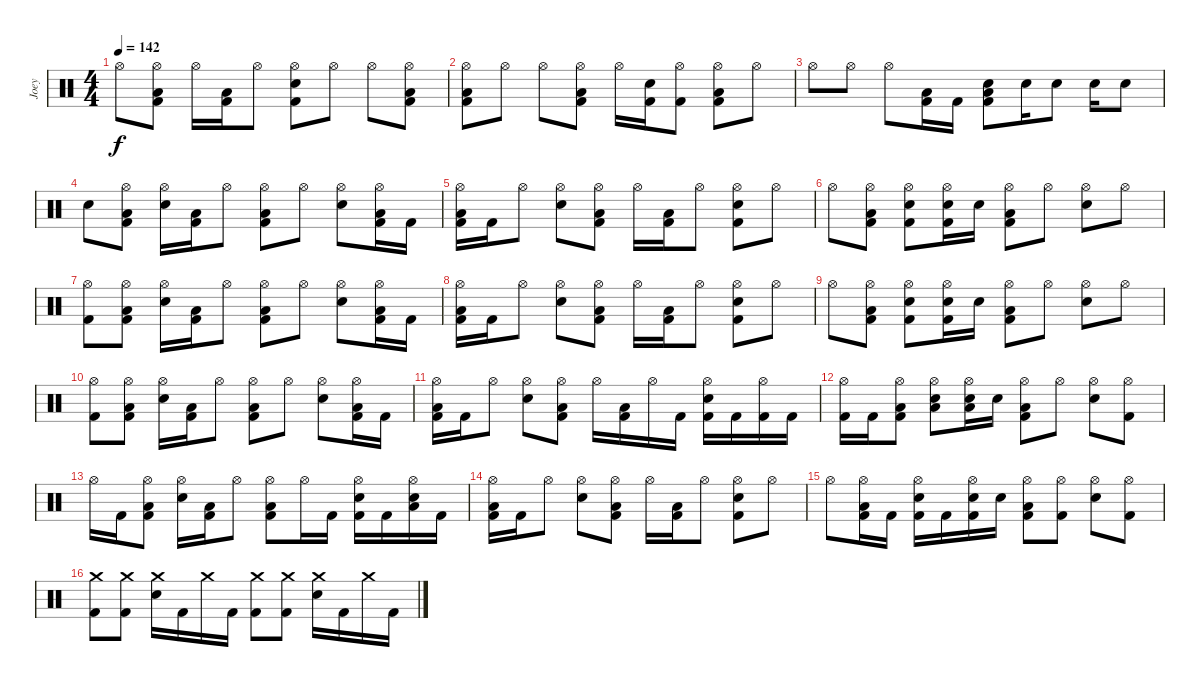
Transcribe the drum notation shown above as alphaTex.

\track ("Joey" "Joey") {instrument percussion}
\staff {score}
\articulation defaults
\ts (4 4)
\tempo 142
\clef neutral
\ks c "Hi-Hat (open)".8{dy f}
("Hi-Hat (open)" "Low Floor Tom (hit)" "Kick (hit) 2").8 "Hi-Hat (open)".16 ("Low Floor Tom (hit)" "Kick (hit) 2").16 "Hi-Hat (open)".8 ("Hi-Hat (open)" "Electric Snare (hit)" "Kick (hit) 2").8 "Hi-Hat (open)".8 "Hi-Hat (open)".8 ("Hi-Hat (open)" "Low Floor Tom (hit)" "Kick (hit) 2").8 |
("Hi-Hat (open)" "Low Floor Tom (hit)" "Kick (hit) 2").8 "Hi-Hat (open)".8 "Hi-Hat (open)".8 ("Hi-Hat (open)" "Low Floor Tom (hit)" "Kick (hit) 2").8 "Hi-Hat (open)".16 ("Electric Snare (hit)" "Kick (hit) 2").16 ("Hi-Hat (open)" "Kick (hit) 2").8 ("Hi-Hat (open)" "Low Floor Tom (hit)" "Kick (hit) 2").8 "Hi-Hat (open)".8 |
"Hi-Hat (open)".8 "Hi-Hat (open)".8 "Hi-Hat (open)".8 ("Low Floor Tom (hit)" "Kick (hit) 2").16 "Kick (hit) 2".16 ("Electric Snare (hit)" "Low Floor Tom (hit)" "Kick (hit) 2").8 "Electric Snare (hit)".16 "Electric Snare (hit)".8 "Electric Snare (hit)".16 "Electric Snare (hit)".8 |
"Electric Snare (hit)".8 ("Hi-Hat (open)" "Low Floor Tom (hit)" "Kick (hit) 2").8 ("Hi-Hat (open)" "Electric Snare (hit)").16 ("Low Floor Tom (hit)" "Kick (hit) 2").16 "Hi-Hat (open)".8 ("Hi-Hat (open)" "Low Floor Tom (hit)" "Kick (hit) 2").8 "Hi-Hat (open)".8 ("Hi-Hat (open)" "Electric Snare (hit)").8 ("Hi-Hat (open)" "Low Floor Tom (hit)" "Kick (hit) 2").16 "Kick (hit) 2".16 |
("Hi-Hat (open)" "Low Floor Tom (hit)" "Kick (hit) 2").16 "Kick (hit) 2".16 "Hi-Hat (open)".8 ("Hi-Hat (open)" "Electric Snare (hit)").8 ("Hi-Hat (open)" "Low Floor Tom (hit)" "Kick (hit) 2").8 "Hi-Hat (open)".16 ("Low Floor Tom (hit)" "Kick (hit) 2").16 "Hi-Hat (open)".8 ("Hi-Hat (open)" "Electric Snare (hit)" "Kick (hit) 2").8 "Hi-Hat (open)".8 |
"Hi-Hat (open)".8 ("Hi-Hat (open)" "Low Floor Tom (hit)" "Kick (hit) 2").8 ("Hi-Hat (open)" "Electric Snare (hit)" "Kick (hit) 2").8 ("Hi-Hat (open)" "Electric Snare (hit)" "Kick (hit) 2").16 "Electric Snare (hit)".16 ("Hi-Hat (open)" "Low Floor Tom (hit)" "Kick (hit) 2").8 "Hi-Hat (open)".8 ("Hi-Hat (open)" "Electric Snare (hit)").8 "Hi-Hat (open)".8 |
("Hi-Hat (open)" "Kick (hit) 2").8 ("Hi-Hat (open)" "Low Floor Tom (hit)" "Kick (hit) 2").8 ("Hi-Hat (open)" "Electric Snare (hit)").16 ("Low Floor Tom (hit)" "Kick (hit) 2").16 "Hi-Hat (open)".8 ("Hi-Hat (open)" "Low Floor Tom (hit)" "Kick (hit) 2").8 "Hi-Hat (open)".8 ("Hi-Hat (open)" "Electric Snare (hit)").8 ("Hi-Hat (open)" "Low Floor Tom (hit)" "Kick (hit) 2").16 "Kick (hit) 2".16 |
("Hi-Hat (open)" "Low Floor Tom (hit)" "Kick (hit) 2").16 "Kick (hit) 2".16 "Hi-Hat (open)".8 ("Hi-Hat (open)" "Electric Snare (hit)").8 ("Hi-Hat (open)" "Low Floor Tom (hit)" "Kick (hit) 2").8 "Hi-Hat (open)".16 ("Low Floor Tom (hit)" "Kick (hit) 2").16 "Hi-Hat (open)".8 ("Hi-Hat (open)" "Electric Snare (hit)" "Kick (hit) 2").8 "Hi-Hat (open)".8 |
"Hi-Hat (open)".8 ("Hi-Hat (open)" "Low Floor Tom (hit)" "Kick (hit) 2").8 ("Hi-Hat (open)" "Electric Snare (hit)" "Kick (hit) 2").8 ("Hi-Hat (open)" "Electric Snare (hit)" "Kick (hit) 2").16 "Electric Snare (hit)".16 ("Hi-Hat (open)" "Low Floor Tom (hit)" "Kick (hit) 2").8 "Hi-Hat (open)".8 ("Hi-Hat (open)" "Electric Snare (hit)").8 "Hi-Hat (open)".8 |
("Hi-Hat (open)" "Kick (hit) 2").8 ("Hi-Hat (open)" "Low Floor Tom (hit)" "Kick (hit) 2").8 ("Hi-Hat (open)" "Electric Snare (hit)").16 ("Low Floor Tom (hit)" "Kick (hit) 2").16 "Hi-Hat (open)".8 ("Hi-Hat (open)" "Low Floor Tom (hit)" "Kick (hit) 2").8 "Hi-Hat (open)".8 ("Hi-Hat (open)" "Electric Snare (hit)").8 ("Hi-Hat (open)" "Low Floor Tom (hit)" "Kick (hit) 2").16 "Kick (hit) 2".16 |
("Hi-Hat (open)" "Low Floor Tom (hit)" "Kick (hit) 2").16 "Kick (hit) 2".16 "Hi-Hat (open)".8 ("Hi-Hat (open)" "Electric Snare (hit)").8 ("Hi-Hat (open)" "Low Floor Tom (hit)" "Kick (hit) 2").8 "Hi-Hat (open)".16 ("Low Floor Tom (hit)" "Kick (hit) 2").16 "Hi-Hat (open)".16 "Kick (hit) 2".16 ("Hi-Hat (open)" "Electric Snare (hit)" "Kick (hit) 2").16 "Kick (hit) 2".16 ("Hi-Hat (open)" "Kick (hit) 2").16 "Kick (hit) 2".16 |
("Hi-Hat (open)" "Kick (hit) 2").16 "Kick (hit) 2".16 ("Hi-Hat (open)" "Low Floor Tom (hit)" "Kick (hit) 2").8 ("Hi-Hat (open)" "Electric Snare (hit)" "Low Floor Tom (hit)").8 ("Hi-Hat (open)" "Electric Snare (hit)" "Low Floor Tom (hit)").16 "Electric Snare (hit)".16 ("Hi-Hat (open)" "Low Floor Tom (hit)" "Kick (hit) 2").8 "Hi-Hat (open)".8 ("Hi-Hat (open)" "Electric Snare (hit)").8 ("Hi-Hat (open)" "Kick (hit) 2").8 |
"Hi-Hat (open)".16 "Kick (hit) 2".16 ("Hi-Hat (open)" "Low Floor Tom (hit)" "Kick (hit) 2").8 ("Hi-Hat (open)" "Electric Snare (hit)").16 ("Low Floor Tom (hit)" "Kick (hit) 2").16 "Hi-Hat (open)".8 ("Hi-Hat (open)" "Low Floor Tom (hit)" "Kick (hit) 2").8 "Hi-Hat (open)".16 "Kick (hit) 2".16 ("Hi-Hat (open)" "Electric Snare (hit)" "Kick (hit) 2").16 "Kick (hit) 2".16 ("Hi-Hat (open)" "Low Floor Tom (hit)" "Electric Snare (hit)").16 "Kick (hit) 2".16 |
("Hi-Hat (open)" "Low Floor Tom (hit)" "Kick (hit) 2").16 "Kick (hit) 2".16 "Hi-Hat (open)".8 ("Hi-Hat (open)" "Electric Snare (hit)").8 ("Hi-Hat (open)" "Low Floor Tom (hit)" "Kick (hit) 2").8 "Hi-Hat (open)".16 ("Low Floor Tom (hit)" "Kick (hit) 2").16 "Hi-Hat (open)".8 ("Hi-Hat (open)" "Electric Snare (hit)" "Kick (hit) 2").8 "Hi-Hat (open)".8 |
"Hi-Hat (open)".8 ("Hi-Hat (open)" "Low Floor Tom (hit)" "Kick (hit) 2").16 "Kick (hit) 2".16 ("Hi-Hat (open)" "Electric Snare (hit)" "Kick (hit) 2").16 "Kick (hit) 2".16 ("Hi-Hat (open)" "Electric Snare (hit)" "Kick (hit) 2").16 "Electric Snare (hit)".16 ("Hi-Hat (open)" "Low Floor Tom (hit)" "Kick (hit) 2").8 ("Hi-Hat (open)" "Kick (hit) 2").8 ("Hi-Hat (open)" "Electric Snare (hit)").8 ("Hi-Hat (open)" "Kick (hit) 2").8 |
("Crash medium (hit)" "Kick (hit) 2").8 ("Crash medium (hit)" "Kick (hit) 2").8 ("Crash medium (hit)" "Electric Snare (hit)").16 "Kick (hit) 2".16 "Crash medium (hit)".16 "Kick (hit) 2".16 ("Crash medium (hit)" "Kick (hit) 2").8 ("Crash medium (hit)" "Kick (hit) 2").8 ("Crash medium (hit)" "Electric Snare (hit)").16 "Kick (hit) 2".16 "Crash medium (hit)".16 "Kick (hit) 2".16
